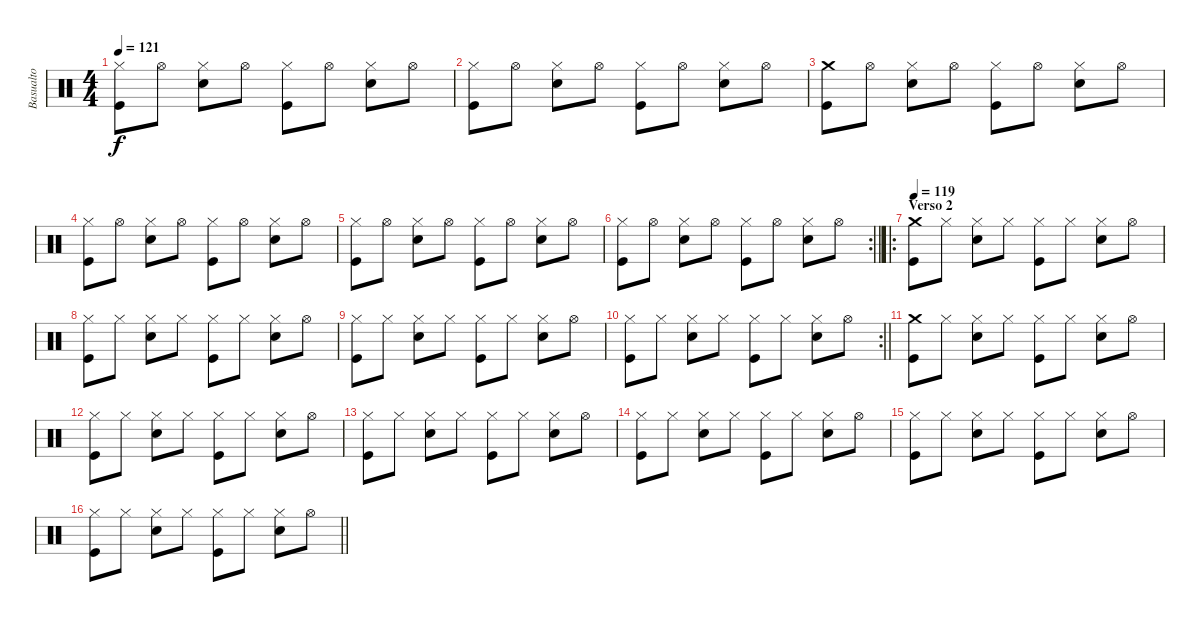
\track ("Basualto" "Basualto") {instrument percussion}
\staff {score}
\articulation defaults
\ts (4 4)
\tempo 121
\clef neutral
\ks c
("Hi-Hat (closed)" "Kick (hit)").8{dy f} "Hi-Hat (open)".8 ("Hi-Hat (closed)" "Snare (hit) 2").8 "Hi-Hat (open)".8 ("Hi-Hat (closed)" "Kick (hit)").8 "Hi-Hat (open)".8 ("Hi-Hat (closed)" "Snare (hit) 2").8 "Hi-Hat (open)".8 |
("Hi-Hat (closed)" "Kick (hit)").8 "Hi-Hat (open)".8 ("Hi-Hat (closed)" "Snare (hit) 2").8 "Hi-Hat (open)".8 ("Hi-Hat (closed)" "Kick (hit)").8 "Hi-Hat (open)".8 ("Hi-Hat (closed)" "Snare (hit) 2").8 "Hi-Hat (open)".8 |
("Crash medium (hit)" "Kick (hit)").8 "Hi-Hat (open)".8 ("Hi-Hat (closed)" "Snare (hit) 2").8 "Hi-Hat (open)".8 ("Hi-Hat (closed)" "Kick (hit)").8 "Hi-Hat (open)".8 ("Hi-Hat (closed)" "Snare (hit) 2").8 "Hi-Hat (open)".8 |
("Hi-Hat (closed)" "Kick (hit)").8 "Hi-Hat (open)".8 ("Hi-Hat (closed)" "Snare (hit) 2").8 "Hi-Hat (open)".8 ("Hi-Hat (closed)" "Kick (hit)").8 "Hi-Hat (open)".8 ("Hi-Hat (closed)" "Snare (hit) 2").8 "Hi-Hat (open)".8 |
("Hi-Hat (closed)" "Kick (hit)").8 "Hi-Hat (open)".8 ("Hi-Hat (closed)" "Snare (hit) 2").8 "Hi-Hat (open)".8 ("Hi-Hat (closed)" "Kick (hit)").8 "Hi-Hat (open)".8 ("Hi-Hat (closed)" "Snare (hit) 2").8 "Hi-Hat (open)".8 |
\rc 2
\barLineRight lightlight
("Hi-Hat (closed)" "Kick (hit)").8 "Hi-Hat (open)".8 ("Hi-Hat (closed)" "Snare (hit) 2").8 "Hi-Hat (open)".8 ("Hi-Hat (closed)" "Kick (hit)").8 "Hi-Hat (open)".8 ("Hi-Hat (closed)" "Snare (hit) 2").8 "Hi-Hat (open)".8 |
\ro
\section ("" "Verso 2")
\tempo 119
("Crash medium (hit)" "Kick (hit)").8 "Hi-Hat (closed)".8 ("Hi-Hat (closed)" "Snare (hit) 2").8 "Hi-Hat (closed)".8 ("Hi-Hat (closed)" "Kick (hit)").8 "Hi-Hat (closed)".8 ("Hi-Hat (closed)" "Snare (hit) 2").8 "Hi-Hat (open)".8 |
("Hi-Hat (closed)" "Kick (hit)").8 "Hi-Hat (closed)".8 ("Hi-Hat (closed)" "Snare (hit) 2").8 "Hi-Hat (closed)".8 ("Hi-Hat (closed)" "Kick (hit)").8 "Hi-Hat (closed)".8 ("Hi-Hat (closed)" "Snare (hit) 2").8 "Hi-Hat (open)".8 |
("Hi-Hat (closed)" "Kick (hit)").8 "Hi-Hat (closed)".8 ("Hi-Hat (closed)" "Snare (hit) 2").8 "Hi-Hat (closed)".8 ("Hi-Hat (closed)" "Kick (hit)").8 "Hi-Hat (closed)".8 ("Hi-Hat (closed)" "Snare (hit) 2").8 "Hi-Hat (open)".8 |
\rc 2
\barLineRight lightlight
("Hi-Hat (closed)" "Kick (hit)").8 "Hi-Hat (closed)".8 ("Hi-Hat (closed)" "Snare (hit) 2").8 "Hi-Hat (closed)".8 ("Hi-Hat (closed)" "Kick (hit)").8 "Hi-Hat (closed)".8 ("Hi-Hat (closed)" "Snare (hit) 2").8 "Hi-Hat (open)".8 |
("Crash medium (hit)" "Kick (hit)").8 "Hi-Hat (closed)".8 ("Hi-Hat (closed)" "Snare (hit) 2").8 "Hi-Hat (closed)".8 ("Hi-Hat (closed)" "Kick (hit)").8 "Hi-Hat (closed)".8 ("Hi-Hat (closed)" "Snare (hit) 2").8 "Hi-Hat (open)".8 |
("Hi-Hat (closed)" "Kick (hit)").8 "Hi-Hat (closed)".8 ("Hi-Hat (closed)" "Snare (hit) 2").8 "Hi-Hat (closed)".8 ("Hi-Hat (closed)" "Kick (hit)").8 "Hi-Hat (closed)".8 ("Hi-Hat (closed)" "Snare (hit) 2").8 "Hi-Hat (open)".8 |
("Hi-Hat (closed)" "Kick (hit)").8 "Hi-Hat (closed)".8 ("Hi-Hat (closed)" "Snare (hit) 2").8 "Hi-Hat (closed)".8 ("Hi-Hat (closed)" "Kick (hit)").8 "Hi-Hat (closed)".8 ("Hi-Hat (closed)" "Snare (hit) 2").8 "Hi-Hat (open)".8 |
("Hi-Hat (closed)" "Kick (hit)").8 "Hi-Hat (closed)".8 ("Hi-Hat (closed)" "Snare (hit) 2").8 "Hi-Hat (closed)".8 ("Hi-Hat (closed)" "Kick (hit)").8 "Hi-Hat (closed)".8 ("Hi-Hat (closed)" "Snare (hit) 2").8 "Hi-Hat (open)".8 |
("Hi-Hat (closed)" "Kick (hit)").8 "Hi-Hat (closed)".8 ("Hi-Hat (closed)" "Snare (hit) 2").8 "Hi-Hat (closed)".8 ("Hi-Hat (closed)" "Kick (hit)").8 "Hi-Hat (closed)".8 ("Hi-Hat (closed)" "Snare (hit) 2").8 "Hi-Hat (open)".8 |
\barLineRight lightlight
("Hi-Hat (closed)" "Kick (hit)").8 "Hi-Hat (closed)".8 ("Hi-Hat (closed)" "Snare (hit) 2").8 "Hi-Hat (closed)".8 ("Hi-Hat (closed)" "Kick (hit)").8 "Hi-Hat (closed)".8 ("Hi-Hat (closed)" "Snare (hit) 2").8 "Hi-Hat (open)".8
